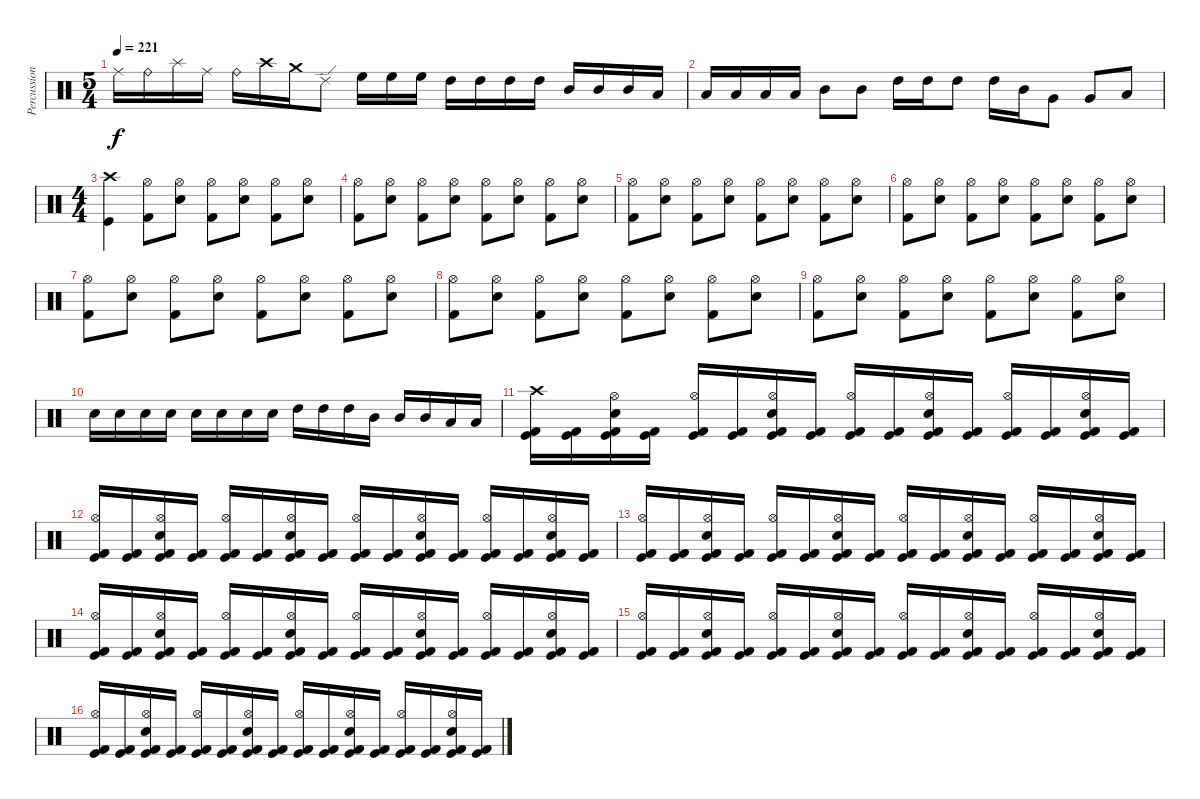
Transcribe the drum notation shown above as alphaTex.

\track ("Percussion" "Percussion") {instrument percussion}
\staff {score}
\articulation defaults
\ts (5 4)
\tempo 221
\clef neutral
\ks c "Ride (middle)".16{dy f} "Ride (bell)".16 "Splash (hit)".16 "Ride (middle)".16 "Ride (bell)".16 "Crash high (hit)".16 "Crash medium (hit)".16 "Ride (edge) 2".8 "High Floor Tom (hit)".16 "High Floor Tom (hit)".16 "High Floor Tom (hit)".16 "High Tom (hit)".16 "High Tom (hit)".16 "High Tom (hit)".16 "High Tom (hit)".16 "Mid Tom (hit)".16 "Mid Tom (hit)".16 "Mid Tom (hit)".16 "Low Tom (hit)".16
|
"Low Tom (hit)".16 "Low Tom (hit)".16 "Low Tom (hit)".16 "Low Tom (hit)".16 "Mid Tom (hit)".8 "Mid Tom (hit)".8 "High Tom (hit)".16 "High Tom (hit)".16 "High Tom (hit)".8 "High Tom (hit)".16 "Mid Tom (hit)".16 "Very Low Tom (hit)".8 "Very Low Tom (hit)".8 "Low Tom (hit)".8 |
\ts (4 4)
("Crash high (hit)" "Kick (hit)").4 ("Hi-Hat (open)" "Kick (hit) 2").8 ("Hi-Hat (open)" "Electric Snare (hit)").8 ("Hi-Hat (open)" "Kick (hit) 2").8 ("Hi-Hat (open)" "Electric Snare (hit)").8 ("Hi-Hat (open)" "Kick (hit) 2").8 ("Hi-Hat (open)" "Electric Snare (hit)").8 |
("Hi-Hat (open)" "Kick (hit) 2").8 ("Hi-Hat (open)" "Electric Snare (hit)").8 ("Hi-Hat (open)" "Kick (hit) 2").8 ("Hi-Hat (open)" "Electric Snare (hit)").8 ("Hi-Hat (open)" "Kick (hit) 2").8 ("Hi-Hat (open)" "Electric Snare (hit)").8 ("Hi-Hat (open)" "Kick (hit) 2").8 ("Hi-Hat (open)" "Electric Snare (hit)").8 |
("Hi-Hat (open)" "Kick (hit) 2").8 ("Hi-Hat (open)" "Electric Snare (hit)").8 ("Hi-Hat (open)" "Kick (hit) 2").8 ("Hi-Hat (open)" "Electric Snare (hit)").8 ("Hi-Hat (open)" "Kick (hit) 2").8 ("Hi-Hat (open)" "Electric Snare (hit)").8 ("Hi-Hat (open)" "Kick (hit) 2").8 ("Hi-Hat (open)" "Electric Snare (hit)").8 |
("Hi-Hat (open)" "Kick (hit) 2").8 ("Hi-Hat (open)" "Electric Snare (hit)").8 ("Hi-Hat (open)" "Kick (hit) 2").8 ("Hi-Hat (open)" "Electric Snare (hit)").8 ("Hi-Hat (open)" "Kick (hit) 2").8 ("Hi-Hat (open)" "Electric Snare (hit)").8 ("Hi-Hat (open)" "Kick (hit) 2").8 ("Hi-Hat (open)" "Electric Snare (hit)").8 |
("Hi-Hat (open)" "Kick (hit) 2").8 ("Hi-Hat (open)" "Electric Snare (hit)").8 ("Hi-Hat (open)" "Kick (hit) 2").8 ("Hi-Hat (open)" "Electric Snare (hit)").8 ("Hi-Hat (open)" "Kick (hit) 2").8 ("Hi-Hat (open)" "Electric Snare (hit)").8 ("Hi-Hat (open)" "Kick (hit) 2").8 ("Hi-Hat (open)" "Electric Snare (hit)").8 |
("Hi-Hat (open)" "Kick (hit) 2").8 ("Hi-Hat (open)" "Electric Snare (hit)").8 ("Hi-Hat (open)" "Kick (hit) 2").8 ("Hi-Hat (open)" "Electric Snare (hit)").8 ("Hi-Hat (open)" "Kick (hit) 2").8 ("Hi-Hat (open)" "Electric Snare (hit)").8 ("Hi-Hat (open)" "Kick (hit) 2").8 ("Hi-Hat (open)" "Electric Snare (hit)").8 |
("Hi-Hat (open)" "Kick (hit) 2").8 ("Hi-Hat (open)" "Electric Snare (hit)").8 ("Hi-Hat (open)" "Kick (hit) 2").8 ("Hi-Hat (open)" "Electric Snare (hit)").8 ("Hi-Hat (open)" "Kick (hit) 2").8 ("Hi-Hat (open)" "Electric Snare (hit)").8 ("Hi-Hat (open)" "Kick (hit) 2").8 ("Hi-Hat (open)" "Electric Snare (hit)").8 |
"Electric Snare (hit)".16 "Electric Snare (hit)".16 "Electric Snare (hit)".16 "Electric Snare (hit)".16 "Electric Snare (hit)".16 "Electric Snare (hit)".16 "Electric Snare (hit)".16 "Electric Snare (hit)".16 "High Tom (hit)".16 "High Tom (hit)".16 "High Tom (hit)".16 "Mid Tom (hit)".16 "Mid Tom (hit)".16 "Mid Tom (hit)".16 "Low Tom (hit)".16 "Low Tom (hit)".16 |
("Crash high (hit)" "Kick (hit)" "Kick (hit) 2").16 ("Kick (hit)" "Kick (hit) 2").16 ("Hi-Hat (open)" "Electric Snare (hit)" "Kick (hit)" "Kick (hit) 2").16 ("Kick (hit)" "Kick (hit) 2").16 ("Hi-Hat (open)" "Kick (hit)" "Kick (hit) 2").16 ("Kick (hit)" "Kick (hit) 2").16 ("Hi-Hat (open)" "Electric Snare (hit)" "Kick (hit)" "Kick (hit) 2").16 ("Kick (hit)" "Kick (hit) 2").16 ("Hi-Hat (open)" "Kick (hit)" "Kick (hit) 2").16 ("Kick (hit)" "Kick (hit) 2").16 ("Hi-Hat (open)" "Electric Snare (hit)" "Kick (hit)" "Kick (hit) 2").16 ("Kick (hit)" "Kick (hit) 2").16 ("Hi-Hat (open)" "Kick (hit)" "Kick (hit) 2").16 ("Kick (hit)" "Kick (hit) 2").16 ("Hi-Hat (open)" "Electric Snare (hit)" "Kick (hit)" "Kick (hit) 2").16 ("Kick (hit)" "Kick (hit) 2").16 |
("Hi-Hat (open)" "Kick (hit)" "Kick (hit) 2").16 ("Kick (hit)" "Kick (hit) 2").16 ("Hi-Hat (open)" "Electric Snare (hit)" "Kick (hit)" "Kick (hit) 2").16 ("Kick (hit)" "Kick (hit) 2").16 ("Hi-Hat (open)" "Kick (hit)" "Kick (hit) 2").16 ("Kick (hit)" "Kick (hit) 2").16 ("Hi-Hat (open)" "Electric Snare (hit)" "Kick (hit)" "Kick (hit) 2").16 ("Kick (hit)" "Kick (hit) 2").16 ("Hi-Hat (open)" "Kick (hit)" "Kick (hit) 2").16 ("Kick (hit)" "Kick (hit) 2").16 ("Hi-Hat (open)" "Electric Snare (hit)" "Kick (hit)" "Kick (hit) 2").16 ("Kick (hit)" "Kick (hit) 2").16 ("Hi-Hat (open)" "Kick (hit)" "Kick (hit) 2").16 ("Kick (hit)" "Kick (hit) 2").16 ("Hi-Hat (open)" "Electric Snare (hit)" "Kick (hit)" "Kick (hit) 2").16 ("Kick (hit)" "Kick (hit) 2").16 |
("Hi-Hat (open)" "Kick (hit)" "Kick (hit) 2").16 ("Kick (hit)" "Kick (hit) 2").16 ("Hi-Hat (open)" "Electric Snare (hit)" "Kick (hit)" "Kick (hit) 2").16 ("Kick (hit)" "Kick (hit) 2").16 ("Hi-Hat (open)" "Kick (hit)" "Kick (hit) 2").16 ("Kick (hit)" "Kick (hit) 2").16 ("Hi-Hat (open)" "Electric Snare (hit)" "Kick (hit)" "Kick (hit) 2").16 ("Kick (hit)" "Kick (hit) 2").16 ("Hi-Hat (open)" "Kick (hit)" "Kick (hit) 2").16 ("Kick (hit)" "Kick (hit) 2").16 ("Hi-Hat (open)" "Electric Snare (hit)" "Kick (hit)" "Kick (hit) 2").16 ("Kick (hit)" "Kick (hit) 2").16 ("Hi-Hat (open)" "Kick (hit)" "Kick (hit) 2").16 ("Kick (hit)" "Kick (hit) 2").16 ("Hi-Hat (open)" "Electric Snare (hit)" "Kick (hit)" "Kick (hit) 2").16 ("Kick (hit)" "Kick (hit) 2").16 |
("Hi-Hat (open)" "Kick (hit)" "Kick (hit) 2").16 ("Kick (hit)" "Kick (hit) 2").16 ("Hi-Hat (open)" "Electric Snare (hit)" "Kick (hit)" "Kick (hit) 2").16 ("Kick (hit)" "Kick (hit) 2").16 ("Hi-Hat (open)" "Kick (hit)" "Kick (hit) 2").16 ("Kick (hit)" "Kick (hit) 2").16 ("Hi-Hat (open)" "Electric Snare (hit)" "Kick (hit)" "Kick (hit) 2").16 ("Kick (hit)" "Kick (hit) 2").16 ("Hi-Hat (open)" "Kick (hit)" "Kick (hit) 2").16 ("Kick (hit)" "Kick (hit) 2").16 ("Hi-Hat (open)" "Electric Snare (hit)" "Kick (hit)" "Kick (hit) 2").16 ("Kick (hit)" "Kick (hit) 2").16 ("Hi-Hat (open)" "Kick (hit)" "Kick (hit) 2").16 ("Kick (hit)" "Kick (hit) 2").16 ("Hi-Hat (open)" "Electric Snare (hit)" "Kick (hit)" "Kick (hit) 2").16 ("Kick (hit)" "Kick (hit) 2").16 |
("Hi-Hat (open)" "Kick (hit)" "Kick (hit) 2").16 ("Kick (hit)" "Kick (hit) 2").16 ("Hi-Hat (open)" "Electric Snare (hit)" "Kick (hit)" "Kick (hit) 2").16 ("Kick (hit)" "Kick (hit) 2").16 ("Hi-Hat (open)" "Kick (hit)" "Kick (hit) 2").16 ("Kick (hit)" "Kick (hit) 2").16 ("Hi-Hat (open)" "Electric Snare (hit)" "Kick (hit)" "Kick (hit) 2").16 ("Kick (hit)" "Kick (hit) 2").16 ("Hi-Hat (open)" "Kick (hit)" "Kick (hit) 2").16 ("Kick (hit)" "Kick (hit) 2").16 ("Hi-Hat (open)" "Electric Snare (hit)" "Kick (hit)" "Kick (hit) 2").16 ("Kick (hit)" "Kick (hit) 2").16 ("Hi-Hat (open)" "Kick (hit)" "Kick (hit) 2").16 ("Kick (hit)" "Kick (hit) 2").16 ("Hi-Hat (open)" "Electric Snare (hit)" "Kick (hit)" "Kick (hit) 2").16 ("Kick (hit)" "Kick (hit) 2").16 |
("Hi-Hat (open)" "Kick (hit)" "Kick (hit) 2").16 ("Kick (hit)" "Kick (hit) 2").16 ("Hi-Hat (open)" "Electric Snare (hit)" "Kick (hit)" "Kick (hit) 2").16 ("Kick (hit)" "Kick (hit) 2").16 ("Hi-Hat (open)" "Kick (hit)" "Kick (hit) 2").16 ("Kick (hit)" "Kick (hit) 2").16 ("Hi-Hat (open)" "Electric Snare (hit)" "Kick (hit)" "Kick (hit) 2").16 ("Kick (hit)" "Kick (hit) 2").16 ("Hi-Hat (open)" "Kick (hit)" "Kick (hit) 2").16 ("Kick (hit)" "Kick (hit) 2").16 ("Hi-Hat (open)" "Electric Snare (hit)" "Kick (hit)" "Kick (hit) 2").16 ("Kick (hit)" "Kick (hit) 2").16 ("Hi-Hat (open)" "Kick (hit)" "Kick (hit) 2").16 ("Kick (hit)" "Kick (hit) 2").16 ("Hi-Hat (open)" "Electric Snare (hit)" "Kick (hit)" "Kick (hit) 2").16 ("Kick (hit)" "Kick (hit) 2").16
